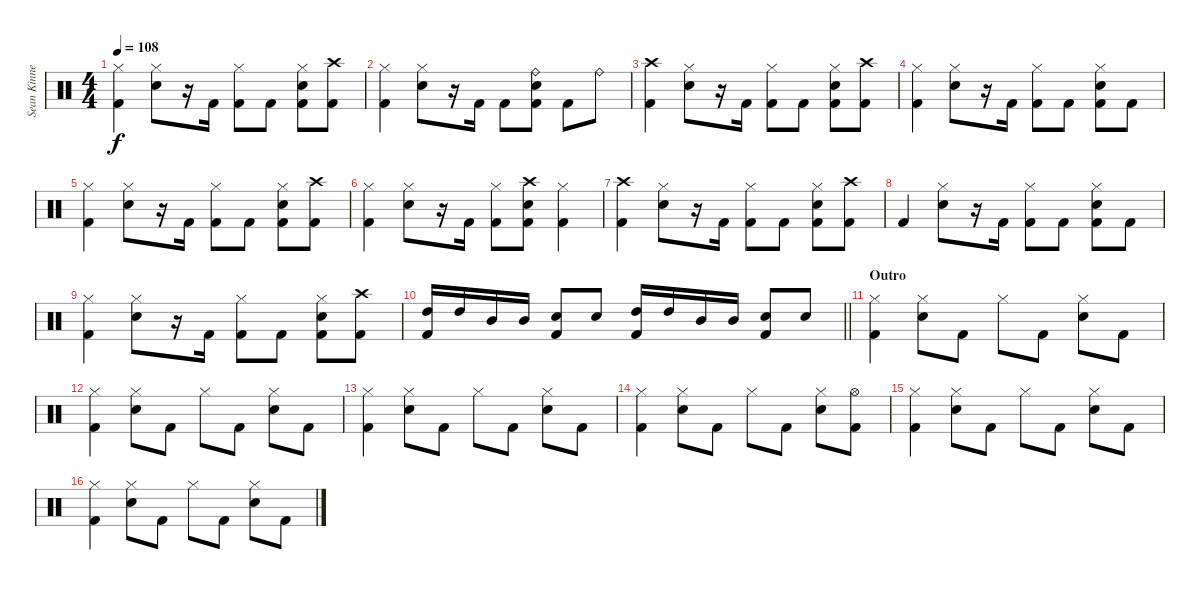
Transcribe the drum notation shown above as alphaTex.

\track ("Sean Kinney- Drums" "Sean Kinne") {instrument percussion}
\staff {score}
\articulation defaults
\ts (4 4)
\tempo 108
\clef neutral
\ks c
("Hi-Hat (closed)" "Kick (hit) 2").4{dy f} ("Hi-Hat (closed)" "Electric Snare (hit)").8 r.16 "Kick (hit) 2".16 ("Hi-Hat (closed)" "Kick (hit) 2").8 "Kick (hit) 2".8 ("Hi-Hat (closed)" "Electric Snare (hit)" "Kick (hit) 2").8 ("Crash high (hit)" "Kick (hit) 2").8 |
("Hi-Hat (closed)" "Kick (hit) 2").4 ("Hi-Hat (closed)" "Electric Snare (hit)").8 r.16 "Kick (hit) 2".16 "Kick (hit) 2".8 ("Ride (bell)" "Electric Snare (hit)" "Kick (hit) 2").8 "Kick (hit) 2".8 "Ride (bell)".8 |
("Crash high (hit)" "Kick (hit) 2").4 ("Hi-Hat (closed)" "Electric Snare (hit)").8 r.16 "Kick (hit) 2".16 ("Hi-Hat (closed)" "Kick (hit) 2").8 "Kick (hit) 2".8 ("Hi-Hat (closed)" "Electric Snare (hit)" "Kick (hit) 2").8 ("Crash high (hit)" "Kick (hit) 2").8 |
("Hi-Hat (closed)" "Kick (hit) 2").4 ("Hi-Hat (closed)" "Electric Snare (hit)").8 r.16 "Kick (hit) 2".16 ("Hi-Hat (closed)" "Kick (hit) 2").8 "Kick (hit) 2".8 ("Hi-Hat (closed)" "Electric Snare (hit)" "Kick (hit) 2").8 "Kick (hit) 2".8 |
("Hi-Hat (closed)" "Kick (hit) 2").4 ("Hi-Hat (closed)" "Electric Snare (hit)").8 r.16 "Kick (hit) 2".16 ("Hi-Hat (closed)" "Kick (hit) 2").8 "Kick (hit) 2".8 ("Hi-Hat (closed)" "Electric Snare (hit)" "Kick (hit) 2").8 ("Crash high (hit)" "Kick (hit) 2").8 |
("Hi-Hat (closed)" "Kick (hit) 2").4 ("Hi-Hat (closed)" "Electric Snare (hit)").8 r.16 "Kick (hit) 2".16 ("Hi-Hat (closed)" "Kick (hit) 2").8 ("Crash high (hit)" "Electric Snare (hit)" "Kick (hit) 2").8 ("Hi-Hat (closed)" "Kick (hit) 2").4 |
("Crash high (hit)" "Kick (hit) 2").4 ("Hi-Hat (closed)" "Electric Snare (hit)").8 r.16 "Kick (hit) 2".16 ("Hi-Hat (closed)" "Kick (hit) 2").8 "Kick (hit) 2".8 ("Hi-Hat (closed)" "Electric Snare (hit)" "Kick (hit) 2").8 ("Crash high (hit)" "Kick (hit) 2").8 |
"Kick (hit) 2".4 ("Hi-Hat (closed)" "Electric Snare (hit)").8 r.16 "Kick (hit) 2".16 ("Hi-Hat (closed)" "Kick (hit) 2").8 "Kick (hit) 2".8 ("Hi-Hat (closed)" "Electric Snare (hit)" "Kick (hit) 2").8 "Kick (hit) 2".8 |
("Hi-Hat (closed)" "Kick (hit) 2").4 ("Hi-Hat (closed)" "Electric Snare (hit)").8 r.16 "Kick (hit) 2".16 ("Hi-Hat (closed)" "Kick (hit) 2").8 "Kick (hit) 2".8 ("Hi-Hat (closed)" "Electric Snare (hit)" "Kick (hit) 2").8 ("Crash high (hit)" "Kick (hit) 2").8 |
\barLineRight lightlight
("High Tom (hit)" "Kick (hit) 2").16 "High Tom (hit)".16 "Mid Tom (hit)".16 "Mid Tom (hit)".16 ("Electric Snare (hit)" "Kick (hit) 2").8 "Electric Snare (hit)".8 ("High Tom (hit)" "Kick (hit) 2").16 "High Tom (hit)".16 "Mid Tom (hit)".16 "Mid Tom (hit)".16 ("Electric Snare (hit)" "Kick (hit) 2").8 "Electric Snare (hit)".8 |
\section ("" "Outro")
("Hi-Hat (closed)" "Kick (hit) 2").4 ("Hi-Hat (closed)" "Electric Snare (hit)").8 "Kick (hit) 2".8 "Hi-Hat (closed)".8 "Kick (hit) 2".8 ("Hi-Hat (closed)" "Electric Snare (hit)").8 "Kick (hit) 2".8 |
("Hi-Hat (closed)" "Kick (hit) 2").4 ("Hi-Hat (closed)" "Electric Snare (hit)").8 "Kick (hit) 2".8 "Hi-Hat (closed)".8 "Kick (hit) 2".8 ("Hi-Hat (closed)" "Electric Snare (hit)").8 "Kick (hit) 2".8 |
("Hi-Hat (closed)" "Kick (hit) 2").4 ("Hi-Hat (closed)" "Electric Snare (hit)").8 "Kick (hit) 2".8 "Hi-Hat (closed)".8 "Kick (hit) 2".8 ("Hi-Hat (closed)" "Electric Snare (hit)").8 "Kick (hit) 2".8 |
("Hi-Hat (closed)" "Kick (hit) 2").4 ("Hi-Hat (closed)" "Electric Snare (hit)").8 "Kick (hit) 2".8 "Hi-Hat (closed)".8 "Kick (hit) 2".8 ("Hi-Hat (closed)" "Electric Snare (hit)").8 ("Hi-Hat (open)" "Kick (hit) 2").8 |
("Hi-Hat (closed)" "Kick (hit) 2").4 ("Hi-Hat (closed)" "Electric Snare (hit)").8 "Kick (hit) 2".8 "Hi-Hat (closed)".8 "Kick (hit) 2".8 ("Hi-Hat (closed)" "Electric Snare (hit)").8 "Kick (hit) 2".8 |
("Hi-Hat (closed)" "Kick (hit) 2").4 ("Hi-Hat (closed)" "Electric Snare (hit)").8 "Kick (hit) 2".8 "Hi-Hat (closed)".8 "Kick (hit) 2".8 ("Hi-Hat (closed)" "Electric Snare (hit)").8 "Kick (hit) 2".8
